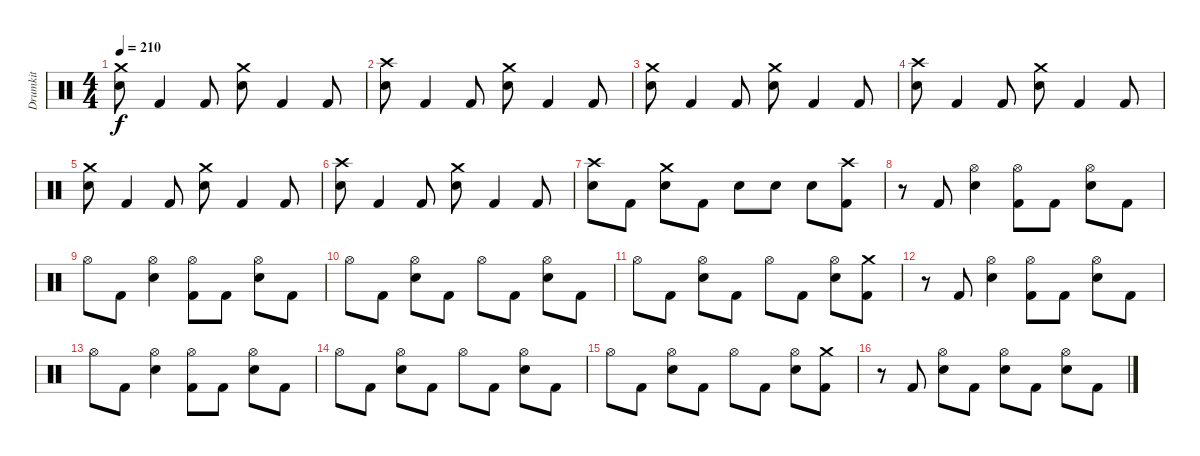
\track ("Drumkit" "Drumkit") {instrument percussion}
\staff {score}
\articulation defaults
\ts (4 4)
\tempo 210
\clef neutral
\ks c
("Crash medium (hit)" "Electric Snare (hit)").8{dy f} "Kick (hit) 2".4 "Kick (hit) 2".8 ("Crash medium (hit)" "Electric Snare (hit)").8 "Kick (hit) 2".4 "Kick (hit) 2".8 |
("Crash high (hit)" "Electric Snare (hit)").8 "Kick (hit) 2".4 "Kick (hit) 2".8 ("Crash medium (hit)" "Electric Snare (hit)").8 "Kick (hit) 2".4 "Kick (hit) 2".8 |
("Crash medium (hit)" "Electric Snare (hit)").8 "Kick (hit) 2".4 "Kick (hit) 2".8 ("Crash medium (hit)" "Electric Snare (hit)").8 "Kick (hit) 2".4 "Kick (hit) 2".8 |
("Crash high (hit)" "Electric Snare (hit)").8 "Kick (hit) 2".4 "Kick (hit) 2".8 ("Crash medium (hit)" "Electric Snare (hit)").8 "Kick (hit) 2".4 "Kick (hit) 2".8 |
("Crash medium (hit)" "Electric Snare (hit)").8 "Kick (hit) 2".4 "Kick (hit) 2".8 ("Crash medium (hit)" "Electric Snare (hit)").8 "Kick (hit) 2".4 "Kick (hit) 2".8 |
("Crash high (hit)" "Electric Snare (hit)").8 "Kick (hit) 2".4 "Kick (hit) 2".8 ("Crash medium (hit)" "Electric Snare (hit)").8 "Kick (hit) 2".4 "Kick (hit) 2".8 |
("Crash high (hit)" "Electric Snare (hit)").8 "Kick (hit) 2".8 ("Crash medium (hit)" "Electric Snare (hit)").8 "Kick (hit) 2".8 "Electric Snare (hit)".8 "Electric Snare (hit)".8 "Electric Snare (hit)".8 ("Crash high (hit)" "Kick (hit) 2").8 |
r.8 "Kick (hit) 2".8 ("Hi-Hat (open)" "Electric Snare (hit)").4 ("Hi-Hat (open)" "Kick (hit) 2").8 "Kick (hit) 2".8 ("Hi-Hat (open)" "Electric Snare (hit)").8 "Kick (hit) 2".8 |
"Hi-Hat (open)".8 "Kick (hit) 2".8 ("Hi-Hat (open)" "Electric Snare (hit)").4 ("Hi-Hat (open)" "Kick (hit) 2").8 "Kick (hit) 2".8 ("Hi-Hat (open)" "Electric Snare (hit)").8 "Kick (hit) 2".8 |
"Hi-Hat (open)".8 "Kick (hit) 2".8 ("Hi-Hat (open)" "Electric Snare (hit)").8 "Kick (hit) 2".8 "Hi-Hat (open)".8 "Kick (hit) 2".8 ("Hi-Hat (open)" "Electric Snare (hit)").8 "Kick (hit) 2".8 |
"Hi-Hat (open)".8 "Kick (hit) 2".8 ("Hi-Hat (open)" "Electric Snare (hit)").8 "Kick (hit) 2".8 "Hi-Hat (open)".8 "Kick (hit) 2".8 ("Hi-Hat (open)" "Electric Snare (hit)").8 ("Crash medium (hit)" "Kick (hit) 2").8 |
r.8 "Kick (hit) 2".8 ("Hi-Hat (open)" "Electric Snare (hit)").4 ("Hi-Hat (open)" "Kick (hit) 2").8 "Kick (hit) 2".8 ("Hi-Hat (open)" "Electric Snare (hit)").8 "Kick (hit) 2".8 |
"Hi-Hat (open)".8 "Kick (hit) 2".8 ("Hi-Hat (open)" "Electric Snare (hit)").4 ("Hi-Hat (open)" "Kick (hit) 2").8 "Kick (hit) 2".8 ("Hi-Hat (open)" "Electric Snare (hit)").8 "Kick (hit) 2".8 |
"Hi-Hat (open)".8 "Kick (hit) 2".8 ("Hi-Hat (open)" "Electric Snare (hit)").8 "Kick (hit) 2".8 "Hi-Hat (open)".8 "Kick (hit) 2".8 ("Hi-Hat (open)" "Electric Snare (hit)").8 "Kick (hit) 2".8 |
"Hi-Hat (open)".8 "Kick (hit) 2".8 ("Hi-Hat (open)" "Electric Snare (hit)").8 "Kick (hit) 2".8 "Hi-Hat (open)".8 "Kick (hit) 2".8 ("Hi-Hat (open)" "Electric Snare (hit)").8 ("Crash medium (hit)" "Kick (hit) 2").8 |
r.8 "Kick (hit) 2".8 ("Hi-Hat (open)" "Electric Snare (hit)").8 "Kick (hit) 2".8 ("Hi-Hat (open)" "Electric Snare (hit)").8 "Kick (hit) 2".8 ("Hi-Hat (open)" "Electric Snare (hit)").8 "Kick (hit) 2".8
